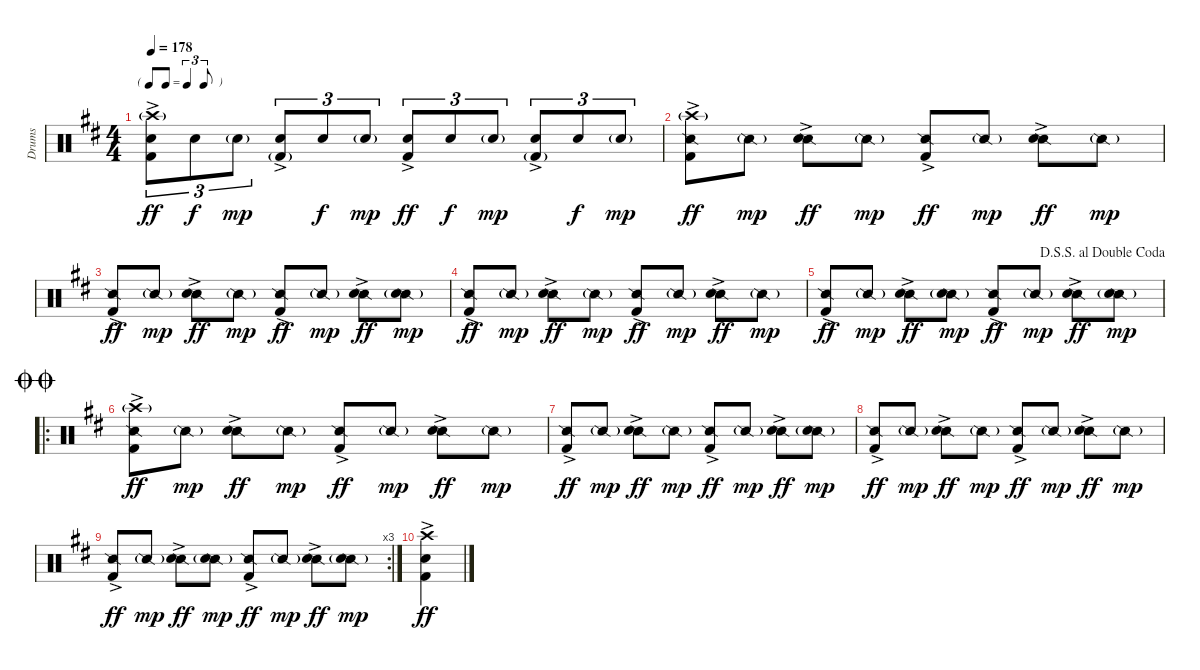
\track ("Drums" "Drums") {instrument percussion}
\staff {score}
\articulation defaults
\ts (4 4)
\tf triplet8th
\tempo 178
\clef neutral
\ks d
("Crash high (hit)"{g} "Snare (hit) 2" "Kick (hit) 2"{ac}).8{tu (3 2) dy ff} "Snare (hit) 2".8{tu (3 2) dy f} "Snare (hit) 2"{g}.8{tu (3 2) dy mp} ("Snare (hit) 2"{ac} "Kick (hit) 2"{g}).8{tu (3 2)} "Snare (hit) 2".8{tu (3 2) dy f} "Snare (hit) 2"{g}.8{tu (3 2) dy mp} ("Snare (hit) 2" "Kick (hit) 2"{ac}).8{tu (3 2) dy ff} "Snare (hit) 2".8{tu (3 2) dy f} "Snare (hit) 2"{g}.8{tu (3 2) dy mp} ("Snare (hit) 2"{ac} "Kick (hit) 2"{g}).8{tu (3 2)} "Snare (hit) 2".8{tu (3 2) dy f} "Snare (hit) 2"{g}.8{tu (3 2) dy mp} |
("Snare (side stick) 2" "Crash high (hit)"{g} "Kick (hit) 2"{ac}).8{dy ff} "Snare (side stick) 2"{g}.8{dy mp} ("Snare (side stick) 2" "Snare (hit) 2"{ac}).8{dy ff} "Snare (side stick) 2"{g}.8{dy mp} ("Snare (side stick) 2" "Kick (hit) 2"{ac}).8{dy ff} "Snare (side stick) 2"{g}.8{dy mp} ("Snare (side stick) 2" "Snare (hit) 2"{ac}).8{dy ff} "Snare (side stick) 2"{g}.8{dy mp} |
("Snare (side stick) 2" "Kick (hit) 2"{ac}).8{dy ff} "Snare (side stick) 2"{g}.8{dy mp} ("Snare (side stick) 2" "Snare (hit) 2"{ac}).8{dy ff} "Snare (side stick) 2"{g}.8{dy mp} ("Snare (side stick) 2" "Kick (hit) 2"{ac}).8{dy ff} "Snare (side stick) 2"{g}.8{dy mp} ("Snare (side stick) 2" "Snare (hit) 2"{ac}).8{dy ff} ("Snare (side stick) 2"{g} "Snare (hit) 2").8{dy mp} |
("Snare (side stick) 2" "Kick (hit) 2"{ac}).8{dy ff} "Snare (side stick) 2"{g}.8{dy mp} ("Snare (side stick) 2" "Snare (hit) 2"{ac}).8{dy ff} "Snare (side stick) 2"{g}.8{dy mp} ("Snare (side stick) 2" "Kick (hit) 2"{ac}).8{dy ff} "Snare (side stick) 2"{g}.8{dy mp} ("Snare (side stick) 2" "Snare (hit) 2"{ac}).8{dy ff} "Snare (side stick) 2"{g}.8{dy mp} |
\jump dalsegnosegnoaldoublecoda
("Snare (side stick) 2" "Kick (hit) 2"{ac}).8{dy ff} "Snare (side stick) 2"{g}.8{dy mp} ("Snare (side stick) 2" "Snare (hit) 2"{ac}).8{dy ff} ("Snare (side stick) 2"{g} "Snare (hit) 2").8{dy mp} ("Snare (side stick) 2" "Kick (hit) 2"{ac}).8{dy ff} "Snare (side stick) 2"{g}.8{dy mp} ("Snare (side stick) 2" "Snare (hit) 2"{ac}).8{dy ff} ("Snare (side stick) 2"{g} "Snare (hit) 2").8{dy mp} |
\ro
\jump doublecoda
("Snare (side stick) 2" "Crash high (hit)"{g} "Kick (hit) 2"{ac}).8{dy ff} "Snare (side stick) 2"{g}.8{dy mp} ("Snare (side stick) 2" "Snare (hit) 2"{ac}).8{dy ff} "Snare (side stick) 2"{g}.8{dy mp} ("Snare (side stick) 2" "Kick (hit) 2"{ac}).8{dy ff} "Snare (side stick) 2"{g}.8{dy mp} ("Snare (side stick) 2" "Snare (hit) 2"{ac}).8{dy ff} "Snare (side stick) 2"{g}.8{dy mp} |
("Snare (side stick) 2" "Kick (hit) 2"{ac}).8{dy ff} "Snare (side stick) 2"{g}.8{dy mp} ("Snare (side stick) 2" "Snare (hit) 2"{ac}).8{dy ff} "Snare (side stick) 2"{g}.8{dy mp} ("Snare (side stick) 2" "Kick (hit) 2"{ac}).8{dy ff} "Snare (side stick) 2"{g}.8{dy mp} ("Snare (side stick) 2" "Snare (hit) 2"{ac}).8{dy ff} ("Snare (side stick) 2"{g} "Snare (hit) 2").8{dy mp} |
("Snare (side stick) 2" "Kick (hit) 2"{ac}).8{dy ff} "Snare (side stick) 2"{g}.8{dy mp} ("Snare (side stick) 2" "Snare (hit) 2"{ac}).8{dy ff} "Snare (side stick) 2"{g}.8{dy mp} ("Snare (side stick) 2" "Kick (hit) 2"{ac}).8{dy ff} "Snare (side stick) 2"{g}.8{dy mp} ("Snare (side stick) 2" "Snare (hit) 2"{ac}).8{dy ff} "Snare (side stick) 2"{g}.8{dy mp} |
\rc 3
("Snare (side stick) 2" "Kick (hit) 2"{ac}).8{dy ff} "Snare (side stick) 2"{g}.8{dy mp} ("Snare (side stick) 2" "Snare (hit) 2"{ac}).8{dy ff} ("Snare (side stick) 2"{g} "Snare (hit) 2").8{dy mp} ("Snare (side stick) 2" "Kick (hit) 2"{ac}).8{dy ff} "Snare (side stick) 2"{g}.8{dy mp} ("Snare (side stick) 2" "Snare (hit) 2"{ac}).8{dy ff} ("Snare (side stick) 2"{g} "Snare (hit) 2").8{dy mp} |
("Crash high (hit)" "Snare (hit) 2" "Kick (hit) 2"{ac}).4{dy ff}
